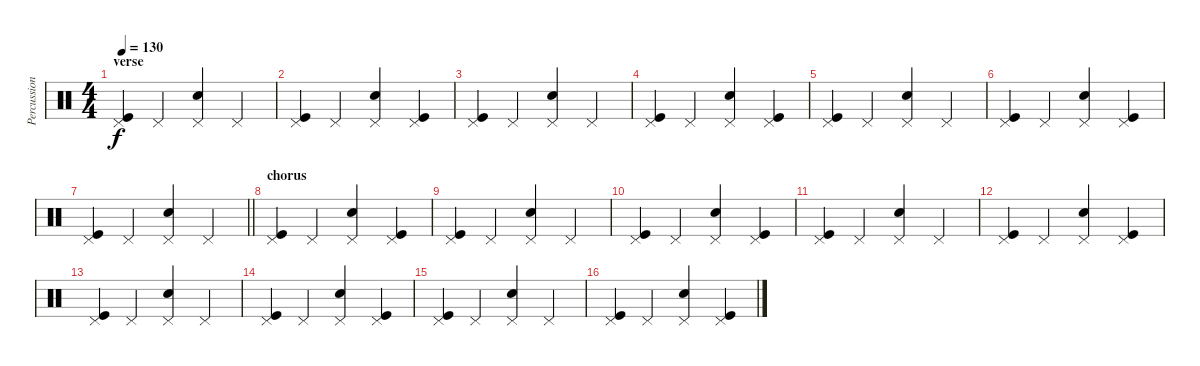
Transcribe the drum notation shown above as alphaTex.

\track ("Percussion" "Percussion") {instrument percussion}
\staff {score}
\articulation defaults
\ts (4 4)
\section ("" "verse")
\tempo 130
\clef neutral
\ks c
("Pedal Hi-Hat (hit)" "Kick (hit)").4{dy f} "Pedal Hi-Hat (hit)".4 ("Pedal Hi-Hat (hit)" "Electric Snare (hit)").4 "Pedal Hi-Hat (hit)".4 |
("Pedal Hi-Hat (hit)" "Kick (hit)").4 "Pedal Hi-Hat (hit)".4 ("Pedal Hi-Hat (hit)" "Electric Snare (hit)").4 ("Pedal Hi-Hat (hit)" "Kick (hit)").4 |
("Pedal Hi-Hat (hit)" "Kick (hit)").4 "Pedal Hi-Hat (hit)".4 ("Pedal Hi-Hat (hit)" "Electric Snare (hit)").4 "Pedal Hi-Hat (hit)".4 |
("Pedal Hi-Hat (hit)" "Kick (hit)").4 "Pedal Hi-Hat (hit)".4 ("Pedal Hi-Hat (hit)" "Electric Snare (hit)").4 ("Pedal Hi-Hat (hit)" "Kick (hit)").4 |
("Pedal Hi-Hat (hit)" "Kick (hit)").4 "Pedal Hi-Hat (hit)".4 ("Pedal Hi-Hat (hit)" "Electric Snare (hit)").4 "Pedal Hi-Hat (hit)".4 |
("Pedal Hi-Hat (hit)" "Kick (hit)").4 "Pedal Hi-Hat (hit)".4 ("Pedal Hi-Hat (hit)" "Electric Snare (hit)").4 ("Pedal Hi-Hat (hit)" "Kick (hit)").4 |
\barLineRight lightlight
("Pedal Hi-Hat (hit)" "Kick (hit)").4 "Pedal Hi-Hat (hit)".4 ("Pedal Hi-Hat (hit)" "Electric Snare (hit)").4 "Pedal Hi-Hat (hit)".4 |
\section ("" "chorus")
("Pedal Hi-Hat (hit)" "Kick (hit)").4 "Pedal Hi-Hat (hit)".4 ("Pedal Hi-Hat (hit)" "Electric Snare (hit)").4 ("Pedal Hi-Hat (hit)" "Kick (hit)").4 |
("Pedal Hi-Hat (hit)" "Kick (hit)").4 "Pedal Hi-Hat (hit)".4 ("Pedal Hi-Hat (hit)" "Electric Snare (hit)").4 "Pedal Hi-Hat (hit)".4 |
("Pedal Hi-Hat (hit)" "Kick (hit)").4 "Pedal Hi-Hat (hit)".4 ("Pedal Hi-Hat (hit)" "Electric Snare (hit)").4 ("Pedal Hi-Hat (hit)" "Kick (hit)").4 |
("Pedal Hi-Hat (hit)" "Kick (hit)").4 "Pedal Hi-Hat (hit)".4 ("Pedal Hi-Hat (hit)" "Electric Snare (hit)").4 "Pedal Hi-Hat (hit)".4 |
("Pedal Hi-Hat (hit)" "Kick (hit)").4 "Pedal Hi-Hat (hit)".4 ("Pedal Hi-Hat (hit)" "Electric Snare (hit)").4 ("Pedal Hi-Hat (hit)" "Kick (hit)").4 |
("Pedal Hi-Hat (hit)" "Kick (hit)").4 "Pedal Hi-Hat (hit)".4 ("Pedal Hi-Hat (hit)" "Electric Snare (hit)").4 "Pedal Hi-Hat (hit)".4 |
("Pedal Hi-Hat (hit)" "Kick (hit)").4 "Pedal Hi-Hat (hit)".4 ("Pedal Hi-Hat (hit)" "Electric Snare (hit)").4 ("Pedal Hi-Hat (hit)" "Kick (hit)").4 |
("Pedal Hi-Hat (hit)" "Kick (hit)").4 "Pedal Hi-Hat (hit)".4 ("Pedal Hi-Hat (hit)" "Electric Snare (hit)").4 "Pedal Hi-Hat (hit)".4 |
("Pedal Hi-Hat (hit)" "Kick (hit)").4 "Pedal Hi-Hat (hit)".4 ("Pedal Hi-Hat (hit)" "Electric Snare (hit)").4 ("Pedal Hi-Hat (hit)" "Kick (hit)").4
